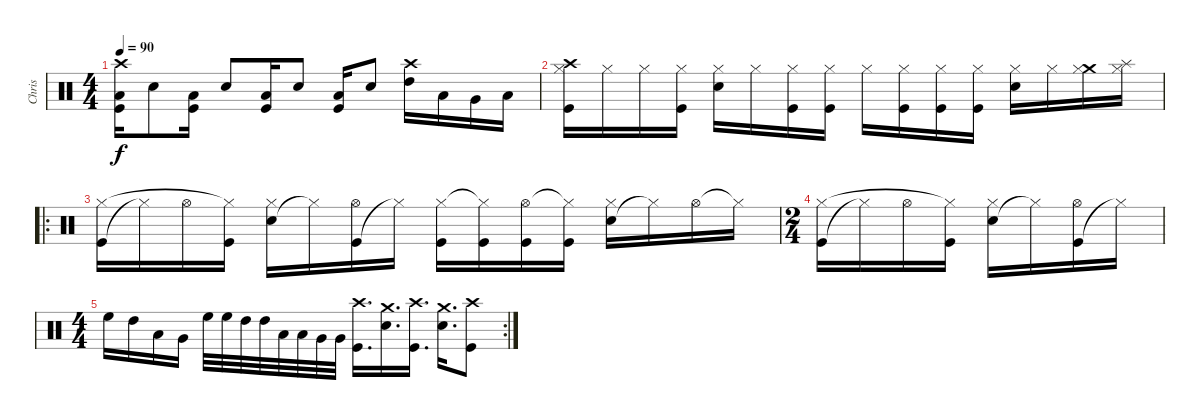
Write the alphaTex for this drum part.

\track ("Chris" "Chris") {instrument percussion}
\staff {score}
\articulation defaults
\ts (4 4)
\tempo 90
\clef neutral
\ks c
("Crash high (hit)" "Low Floor Tom (hit)" "Kick (hit)").16{dy f} "Snare (hit) 2".8 ("Low Floor Tom (hit)" "Kick (hit)").16 "Snare (hit) 2".8 ("Low Floor Tom (hit)" "Kick (hit)").16 "Snare (hit) 2".8 ("Low Floor Tom (hit)" "Kick (hit)").16 "Snare (hit) 2".8 ("Crash high (hit)" "High Tom (hit)").16 "Low Tom (hit)".16 "Very Low Tom (hit)".16 "Low Floor Tom (hit)".16 |
("Crash high (hit)" "Hi-Hat (closed)" "Kick (hit)").16 "Hi-Hat (closed)".16 "Hi-Hat (closed)".16 ("Hi-Hat (closed)" "Kick (hit)").16 ("Hi-Hat (closed)" "Snare (hit) 2").16 "Hi-Hat (closed)".16 ("Hi-Hat (closed)" "Kick (hit)").16 ("Hi-Hat (closed)" "Kick (hit)").16 "Hi-Hat (closed)".16 ("Hi-Hat (closed)" "Kick (hit)").16 ("Hi-Hat (closed)" "Kick (hit)").16 ("Hi-Hat (closed)" "Kick (hit)").16 ("Hi-Hat (closed)" "Snare (hit) 2").16 "Hi-Hat (closed)".16 ("Crash medium (hit)" "Hi-Hat (closed)").16 ("Splash (hit)" "Hi-Hat (closed)").16 |
\ro
("Kick (hit)" "Hi-Hat (closed)").16 "Hi-Hat (closed)"{t}.16 "Hi-Hat (open)".16 ("Kick (hit)" "Hi-Hat (closed)"{t}).16 ("Snare (hit) 2" "Hi-Hat (closed)").16 "Hi-Hat (closed)"{t}.16 ("Kick (hit)" "Hi-Hat (open)").16 "Hi-Hat (closed)"{t}.16 ("Kick (hit)" "Hi-Hat (closed)").16 ("Kick (hit)" "Hi-Hat (closed)"{t}).16 ("Kick (hit)" "Hi-Hat (open)").16 ("Kick (hit)" "Hi-Hat (closed)"{t}).16 ("Snare (hit) 2" "Hi-Hat (closed)").16 "Hi-Hat (closed)"{t}.16 "Hi-Hat (open)".16 "Hi-Hat (closed)"{t}.16 |
\ts (2 4)
("Kick (hit)" "Hi-Hat (closed)").16 "Hi-Hat (closed)"{t}.16 "Hi-Hat (open)".16 ("Kick (hit)" "Hi-Hat (closed)"{t}).16 ("Snare (hit) 2" "Hi-Hat (closed)").16 "Hi-Hat (closed)"{t}.16 ("Kick (hit)" "Hi-Hat (open)").16 "Hi-Hat (closed)"{t}.16 |
\rc 2
\ts (4 4)
"High Floor Tom (hit)".16 "High Tom (hit)".16 "Low Tom (hit)".16 "Very Low Tom (hit)".16 "High Floor Tom (hit)".32 "High Floor Tom (hit)".32 "High Tom (hit)".32 "High Tom (hit)".32 "Low Tom (hit)".32 "Low Tom (hit)".32 "Very Low Tom (hit)".32 "Very Low Tom (hit)".32 ("Crash high (hit)" "Kick (hit)").16{d} ("Crash medium (hit)" "Snare (hit) 2").16{d} ("Crash high (hit)" "Kick (hit)").16{d} ("Crash medium (hit)" "Snare (hit) 2").16{d} ("Crash high (hit)" "Kick (hit)").8
